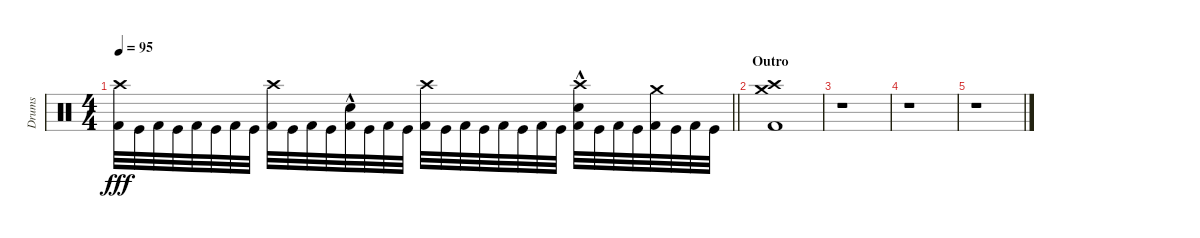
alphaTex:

\track ("Drums" "Drums") {instrument percussion}
\staff {score}
\articulation defaults
\ts (4 4)
\tempo 95
\clef neutral
\barLineRight lightlight
\ks c
("Crash high (hit)" "Kick (hit) 2").32{dy fff} "Kick (hit)".32 "Kick (hit) 2".32 "Kick (hit)".32 "Kick (hit) 2".32 "Kick (hit)".32 "Kick (hit) 2".32 "Kick (hit)".32 ("Crash high (hit)" "Kick (hit) 2").32 "Kick (hit)".32 "Kick (hit) 2".32 "Kick (hit)".32 ("Electric Snare (hit)"{hac} "Kick (hit) 2").32 "Kick (hit)".32 "Kick (hit) 2".32 "Kick (hit)".32 ("Crash high (hit)" "Kick (hit) 2").32 "Kick (hit)".32 "Kick (hit) 2".32 "Kick (hit)".32 "Kick (hit) 2".32 "Kick (hit)".32 "Kick (hit) 2".32 "Kick (hit)".32 ("Crash high (hit)" "Electric Snare (hit)"{hac} "Kick (hit) 2").32 "Kick (hit)".32 "Kick (hit) 2".32 "Kick (hit)".32 ("Crash medium (hit)" "Kick (hit) 2").32 "Kick (hit)".32 "Kick (hit) 2".32 "Kick (hit)".32 |
\section ("" "Outro")
("Crash medium (hit)" "Crash high (hit)" "Kick (hit) 2").1 |
r.1 |
r.1 |
r.1
